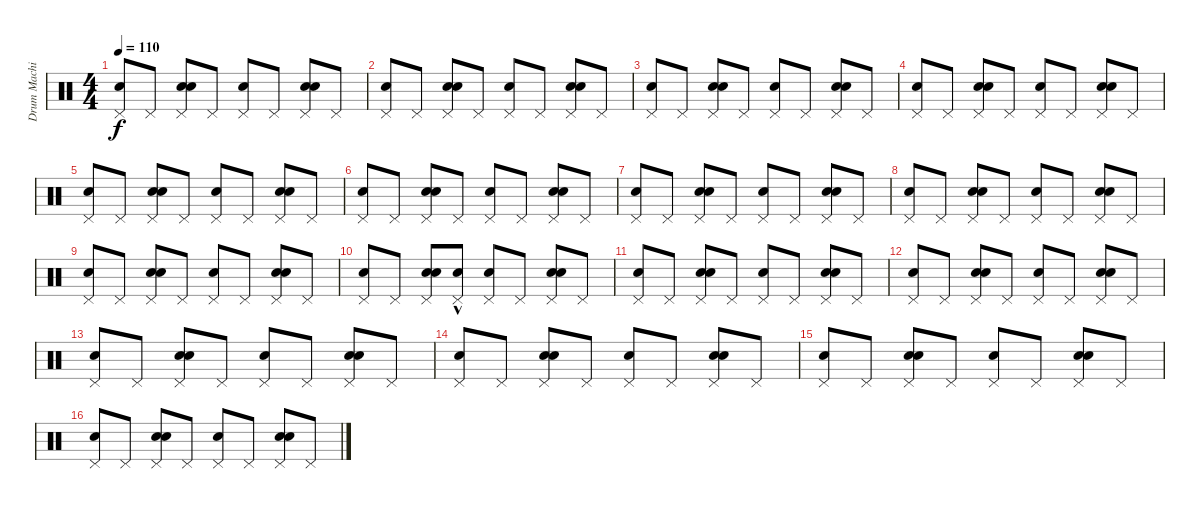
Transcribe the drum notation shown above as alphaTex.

\track ("Drum Machine" "Drum Machi") {instrument percussion}
\staff {score}
\articulation defaults
\ts (4 4)
\tempo 110
\clef neutral
\ks c
("Pedal Hi-Hat (hit)" "Snare (hit) 2").8{dy f} "Pedal Hi-Hat (hit)".8 ("Pedal Hi-Hat (hit)" "Snare (hit) 2" "Hand Clap (hit)").8 "Pedal Hi-Hat (hit)".8 ("Pedal Hi-Hat (hit)" "Snare (hit) 2").8 "Pedal Hi-Hat (hit)".8 ("Pedal Hi-Hat (hit)" "Snare (hit) 2" "Hand Clap (hit)").8 "Pedal Hi-Hat (hit)".8 |
("Pedal Hi-Hat (hit)" "Snare (hit) 2").8 "Pedal Hi-Hat (hit)".8 ("Pedal Hi-Hat (hit)" "Snare (hit) 2" "Hand Clap (hit)").8 "Pedal Hi-Hat (hit)".8 ("Pedal Hi-Hat (hit)" "Snare (hit) 2").8 "Pedal Hi-Hat (hit)".8 ("Pedal Hi-Hat (hit)" "Snare (hit) 2" "Hand Clap (hit)").8 "Pedal Hi-Hat (hit)".8 |
("Pedal Hi-Hat (hit)" "Snare (hit) 2").8 "Pedal Hi-Hat (hit)".8 ("Pedal Hi-Hat (hit)" "Snare (hit) 2" "Hand Clap (hit)").8 "Pedal Hi-Hat (hit)".8 ("Pedal Hi-Hat (hit)" "Snare (hit) 2").8 "Pedal Hi-Hat (hit)".8 ("Pedal Hi-Hat (hit)" "Snare (hit) 2" "Hand Clap (hit)").8 "Pedal Hi-Hat (hit)".8 |
("Pedal Hi-Hat (hit)" "Snare (hit) 2").8 "Pedal Hi-Hat (hit)".8 ("Pedal Hi-Hat (hit)" "Snare (hit) 2" "Hand Clap (hit)").8 "Pedal Hi-Hat (hit)".8 ("Pedal Hi-Hat (hit)" "Snare (hit) 2").8 "Pedal Hi-Hat (hit)".8 ("Pedal Hi-Hat (hit)" "Snare (hit) 2" "Hand Clap (hit)").8 "Pedal Hi-Hat (hit)".8 |
("Pedal Hi-Hat (hit)" "Snare (hit) 2").8 "Pedal Hi-Hat (hit)".8 ("Pedal Hi-Hat (hit)" "Snare (hit) 2" "Hand Clap (hit)").8 "Pedal Hi-Hat (hit)".8 ("Pedal Hi-Hat (hit)" "Snare (hit) 2").8 "Pedal Hi-Hat (hit)".8 ("Pedal Hi-Hat (hit)" "Snare (hit) 2" "Hand Clap (hit)").8 "Pedal Hi-Hat (hit)".8 |
("Pedal Hi-Hat (hit)" "Snare (hit) 2").8 "Pedal Hi-Hat (hit)".8 ("Pedal Hi-Hat (hit)" "Snare (hit) 2" "Hand Clap (hit)").8 "Pedal Hi-Hat (hit)".8 ("Pedal Hi-Hat (hit)" "Snare (hit) 2").8 "Pedal Hi-Hat (hit)".8 ("Pedal Hi-Hat (hit)" "Snare (hit) 2" "Hand Clap (hit)").8 "Pedal Hi-Hat (hit)".8 |
("Pedal Hi-Hat (hit)" "Snare (hit) 2").8 "Pedal Hi-Hat (hit)".8 ("Pedal Hi-Hat (hit)" "Snare (hit) 2" "Hand Clap (hit)").8 "Pedal Hi-Hat (hit)".8 ("Pedal Hi-Hat (hit)" "Snare (hit) 2").8 "Pedal Hi-Hat (hit)".8 ("Pedal Hi-Hat (hit)" "Snare (hit) 2" "Hand Clap (hit)").8 "Pedal Hi-Hat (hit)".8 |
("Pedal Hi-Hat (hit)" "Snare (hit) 2").8 "Pedal Hi-Hat (hit)".8 ("Pedal Hi-Hat (hit)" "Snare (hit) 2" "Hand Clap (hit)").8 "Pedal Hi-Hat (hit)".8 ("Pedal Hi-Hat (hit)" "Snare (hit) 2").8 "Pedal Hi-Hat (hit)".8 ("Pedal Hi-Hat (hit)" "Snare (hit) 2" "Hand Clap (hit)").8 "Pedal Hi-Hat (hit)".8 |
("Pedal Hi-Hat (hit)" "Snare (hit) 2").8 "Pedal Hi-Hat (hit)".8 ("Pedal Hi-Hat (hit)" "Snare (hit) 2" "Hand Clap (hit)").8 "Pedal Hi-Hat (hit)".8 ("Pedal Hi-Hat (hit)" "Snare (hit) 2").8 "Pedal Hi-Hat (hit)".8 ("Pedal Hi-Hat (hit)" "Snare (hit) 2" "Hand Clap (hit)").8 "Pedal Hi-Hat (hit)".8 |
("Pedal Hi-Hat (hit)" "Snare (hit) 2").8 "Pedal Hi-Hat (hit)".8 ("Pedal Hi-Hat (hit)" "Snare (hit) 2" "Hand Clap (hit)").8 ("Pedal Hi-Hat (hit)" "Snare (hit)"{hac}).8 ("Pedal Hi-Hat (hit)" "Snare (hit) 2").8 "Pedal Hi-Hat (hit)".8 ("Pedal Hi-Hat (hit)" "Snare (hit) 2" "Hand Clap (hit)").8 "Pedal Hi-Hat (hit)".8 |
("Pedal Hi-Hat (hit)" "Snare (hit) 2").8 "Pedal Hi-Hat (hit)".8 ("Pedal Hi-Hat (hit)" "Snare (hit) 2" "Hand Clap (hit)").8 "Pedal Hi-Hat (hit)".8 ("Pedal Hi-Hat (hit)" "Snare (hit) 2").8 "Pedal Hi-Hat (hit)".8 ("Pedal Hi-Hat (hit)" "Snare (hit) 2" "Hand Clap (hit)").8 "Pedal Hi-Hat (hit)".8 |
("Pedal Hi-Hat (hit)" "Snare (hit) 2").8 "Pedal Hi-Hat (hit)".8 ("Pedal Hi-Hat (hit)" "Snare (hit) 2" "Hand Clap (hit)").8 "Pedal Hi-Hat (hit)".8 ("Pedal Hi-Hat (hit)" "Snare (hit) 2").8 "Pedal Hi-Hat (hit)".8 ("Pedal Hi-Hat (hit)" "Snare (hit) 2" "Hand Clap (hit)").8 "Pedal Hi-Hat (hit)".8 |
("Pedal Hi-Hat (hit)" "Snare (hit) 2").8 "Pedal Hi-Hat (hit)".8 ("Pedal Hi-Hat (hit)" "Snare (hit) 2" "Hand Clap (hit)").8 "Pedal Hi-Hat (hit)".8 ("Pedal Hi-Hat (hit)" "Snare (hit) 2").8 "Pedal Hi-Hat (hit)".8 ("Pedal Hi-Hat (hit)" "Snare (hit) 2" "Hand Clap (hit)").8 "Pedal Hi-Hat (hit)".8 |
("Pedal Hi-Hat (hit)" "Snare (hit) 2").8 "Pedal Hi-Hat (hit)".8 ("Pedal Hi-Hat (hit)" "Snare (hit) 2" "Hand Clap (hit)").8 "Pedal Hi-Hat (hit)".8 ("Pedal Hi-Hat (hit)" "Snare (hit) 2").8 "Pedal Hi-Hat (hit)".8 ("Pedal Hi-Hat (hit)" "Snare (hit) 2" "Hand Clap (hit)").8 "Pedal Hi-Hat (hit)".8 |
("Pedal Hi-Hat (hit)" "Snare (hit) 2").8 "Pedal Hi-Hat (hit)".8 ("Pedal Hi-Hat (hit)" "Snare (hit) 2" "Hand Clap (hit)").8 "Pedal Hi-Hat (hit)".8 ("Pedal Hi-Hat (hit)" "Snare (hit) 2").8 "Pedal Hi-Hat (hit)".8 ("Pedal Hi-Hat (hit)" "Snare (hit) 2" "Hand Clap (hit)").8 "Pedal Hi-Hat (hit)".8 |
("Pedal Hi-Hat (hit)" "Snare (hit) 2").8 "Pedal Hi-Hat (hit)".8 ("Pedal Hi-Hat (hit)" "Snare (hit) 2" "Hand Clap (hit)").8 "Pedal Hi-Hat (hit)".8 ("Pedal Hi-Hat (hit)" "Snare (hit) 2").8 "Pedal Hi-Hat (hit)".8 ("Pedal Hi-Hat (hit)" "Snare (hit) 2" "Hand Clap (hit)").8 "Pedal Hi-Hat (hit)".8
